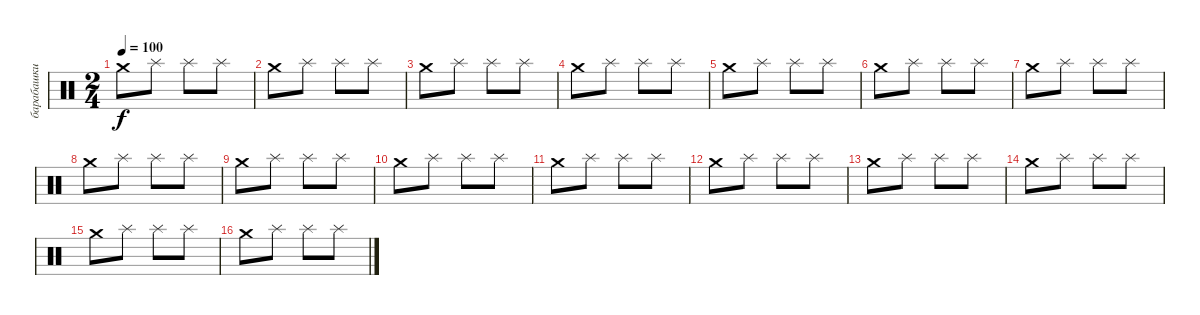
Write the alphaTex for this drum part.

\track ("барабашки high" "барабашки ") {instrument percussion}
\staff {score}
\articulation defaults
\ts (2 4)
\tempo 100
\clef neutral
\ks c "Crash medium (hit)".8{dy f} "Splash (hit)".8 "Splash (hit)".8 "Splash (hit)".8
|
"Crash medium (hit)".8 "Splash (hit)".8 "Splash (hit)".8 "Splash (hit)".8 |
"Crash medium (hit)".8 "Splash (hit)".8 "Splash (hit)".8 "Splash (hit)".8 |
"Crash medium (hit)".8 "Splash (hit)".8 "Splash (hit)".8 "Splash (hit)".8 |
"Crash medium (hit)".8 "Splash (hit)".8 "Splash (hit)".8 "Splash (hit)".8 |
"Crash medium (hit)".8 "Splash (hit)".8 "Splash (hit)".8 "Splash (hit)".8 |
"Crash medium (hit)".8 "Splash (hit)".8 "Splash (hit)".8 "Splash (hit)".8 |
"Crash medium (hit)".8 "Splash (hit)".8 "Splash (hit)".8 "Splash (hit)".8 |
"Crash medium (hit)".8 "Splash (hit)".8 "Splash (hit)".8 "Splash (hit)".8 |
"Crash medium (hit)".8 "Splash (hit)".8 "Splash (hit)".8 "Splash (hit)".8 |
"Crash medium (hit)".8 "Splash (hit)".8 "Splash (hit)".8 "Splash (hit)".8 |
"Crash medium (hit)".8 "Splash (hit)".8 "Splash (hit)".8 "Splash (hit)".8 |
"Crash medium (hit)".8 "Splash (hit)".8 "Splash (hit)".8 "Splash (hit)".8 |
"Crash medium (hit)".8 "Splash (hit)".8 "Splash (hit)".8 "Splash (hit)".8 |
"Crash medium (hit)".8 "Splash (hit)".8 "Splash (hit)".8 "Splash (hit)".8 |
"Crash medium (hit)".8 "Splash (hit)".8 "Splash (hit)".8 "Splash (hit)".8
